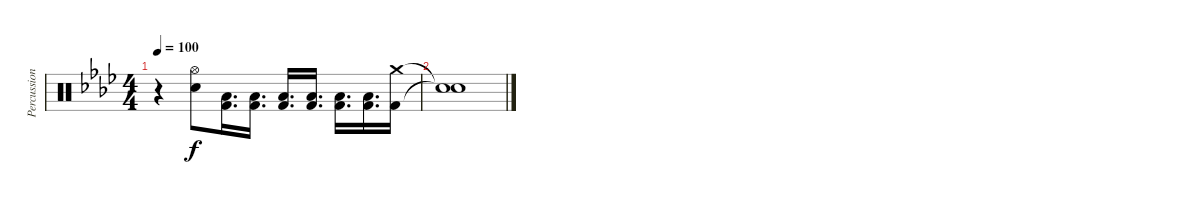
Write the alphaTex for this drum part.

\track ("Percussion" "Percussion") {instrument percussion}
\staff {score}
\articulation defaults
\ts (4 4)
\tempo 100
\clef neutral
\ks ab
r.4{dy f} ("Hi-Hat (open)" "Electric Snare (hit)").8 ("Low Tom (hit)" "Kick (hit) 2").16{d} ("Low Tom (hit)" "Kick (hit) 2").16{d} ("Low Tom (hit)" "Kick (hit) 2").16{d} ("Low Tom (hit)" "Kick (hit) 2").16{d} ("Low Tom (hit)" "Kick (hit) 2").16{d} ("Low Tom (hit)" "Kick (hit) 2").16{d} ("Crash medium (hit)" "Kick (hit) 2").16 |
("Snare (hit)"{t} "Snare (hit)"{t}).1
